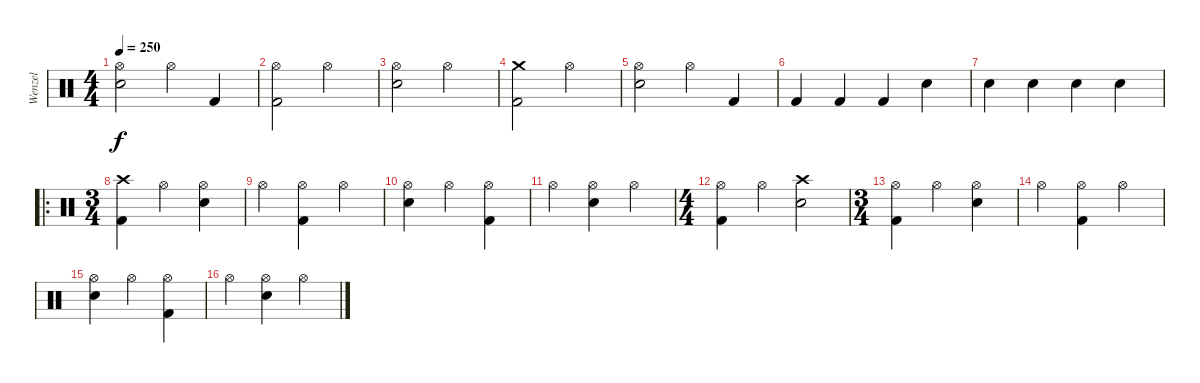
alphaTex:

\track ("Wenzel" "Wenzel") {instrument percussion}
\staff {score}
\articulation defaults
\ts (4 4)
\tempo 250
\clef neutral
\ks c
("Hi-Hat (open)" "Snare (hit) 2").2{dy f} "Hi-Hat (open)".4 "Kick (hit) 2".4 |
("Hi-Hat (open)" "Kick (hit) 2").2 "Hi-Hat (open)".2 |
("Hi-Hat (open)" "Snare (hit) 2").2 "Hi-Hat (open)".2 |
("Crash medium (hit)" "Kick (hit) 2").2 "Hi-Hat (open)".2 |
("Hi-Hat (open)" "Snare (hit) 2").2 "Hi-Hat (open)".4 "Kick (hit) 2".4 |
"Kick (hit) 2".4 "Kick (hit) 2".4 "Kick (hit) 2".4 "Snare (hit) 2".4 |
"Snare (hit) 2".4 "Snare (hit) 2".4 "Snare (hit) 2".4 "Snare (hit) 2".4 |
\ro
\ts (3 4)
("Crash high (hit)" "Kick (hit) 2").4 "Hi-Hat (open)".4 ("Hi-Hat (open)" "Snare (hit) 2").4 |
"Hi-Hat (open)".4 ("Hi-Hat (open)" "Kick (hit) 2").4 "Hi-Hat (open)".4 |
("Hi-Hat (open)" "Snare (hit) 2").4 "Hi-Hat (open)".4 ("Hi-Hat (open)" "Kick (hit) 2").4 |
"Hi-Hat (open)".4 ("Hi-Hat (open)" "Snare (hit) 2").4 "Hi-Hat (open)".4 |
\ts (4 4)
("Hi-Hat (open)" "Kick (hit) 2").4 "Hi-Hat (open)".4 ("Crash high (hit)" "Snare (hit) 2").2 |
\ts (3 4)
("Hi-Hat (open)" "Kick (hit) 2").4 "Hi-Hat (open)".4 ("Hi-Hat (open)" "Snare (hit) 2").4 |
"Hi-Hat (open)".4 ("Hi-Hat (open)" "Kick (hit) 2").4 "Hi-Hat (open)".4 |
("Hi-Hat (open)" "Snare (hit) 2").4 "Hi-Hat (open)".4 ("Hi-Hat (open)" "Kick (hit) 2").4 |
"Hi-Hat (open)".4 ("Hi-Hat (open)" "Snare (hit) 2").4 "Hi-Hat (open)".4
